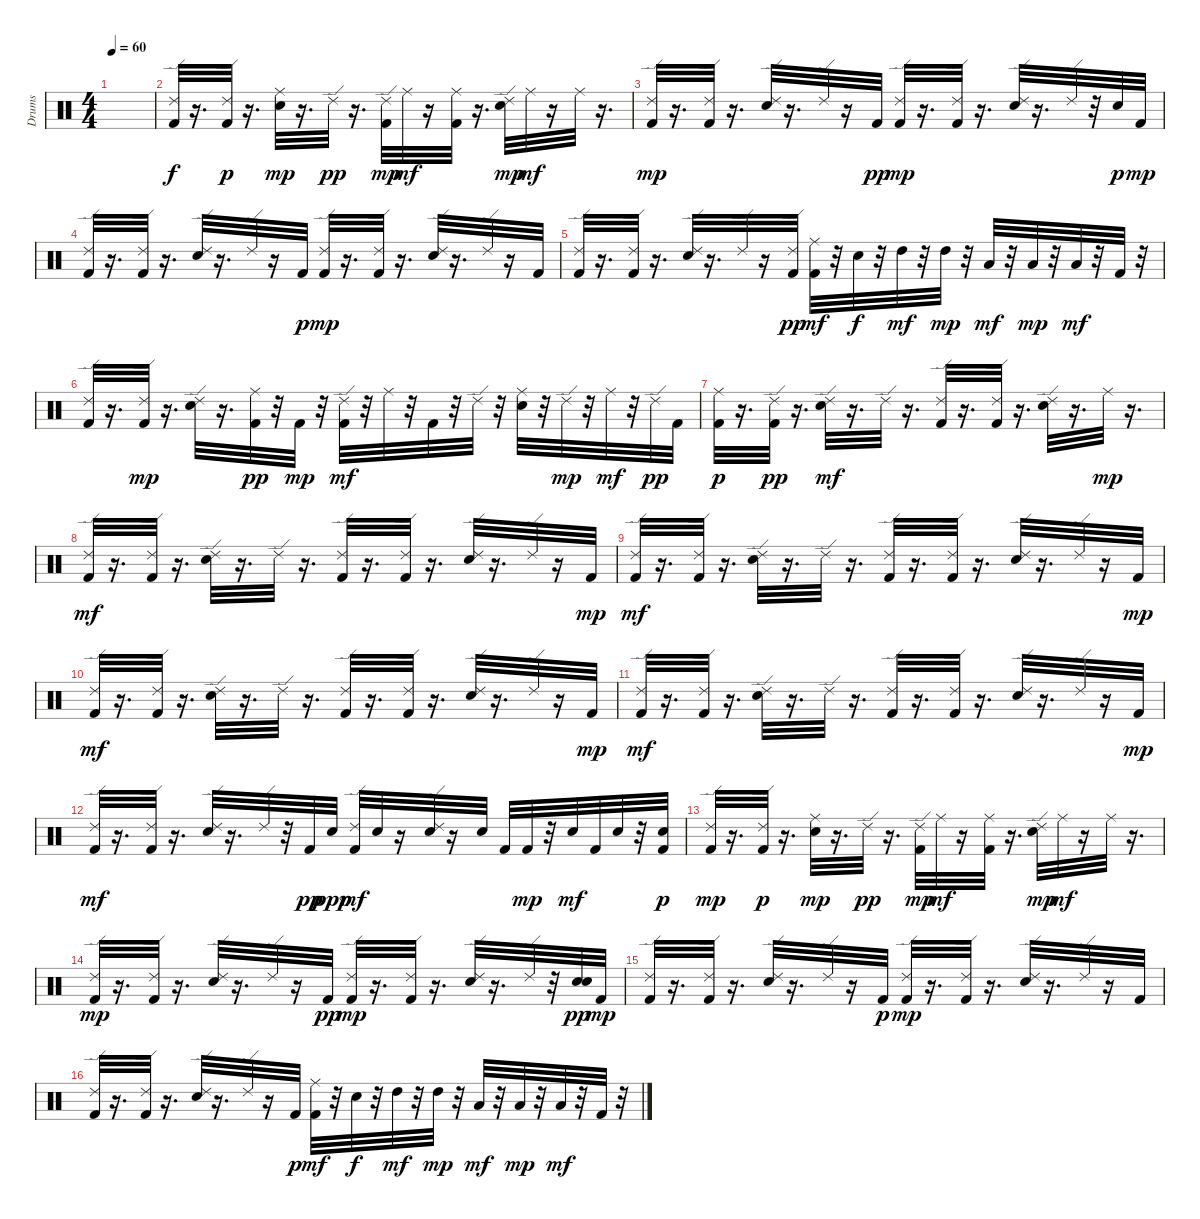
\track ("Drums" "Drums") {instrument percussion}
\staff {score}
\articulation defaults
\ts (4 4)
\tempo 60
\clef neutral
\ks c
|
("Kick (hit) 2" "Ride (edge) 2").32 r.16{d} ("Kick (hit) 2" "Ride (edge) 2").32{dy p} r.16{d} ("Snare (hit) 2" "Ride (middle)").32{dy mp} r.16{d} "Ride (edge) 2".32{dy pp} r.16{d} ("Kick (hit) 2" "Ride (edge) 2").32{dy mp} "Ride (middle)".32{dy mf} r.16 ("Kick (hit) 2" "Ride (middle)").32 r.16{d} ("Snare (hit) 2" "Ride (edge) 2").32{dy mp} "Ride (middle)".32{dy mf} r.16 "Ride (middle)".32 r.16{d} |
("Kick (hit) 2" "Ride (edge) 2").32{dy mp} r.16{d} ("Kick (hit) 2" "Ride (edge) 2").32 r.16{d} ("Snare (hit) 2" "Ride (edge) 2").32 r.16{d} "Ride (edge) 2".32 r.16 "Kick (hit) 2".32{dy pp} ("Kick (hit) 2" "Ride (edge) 2").32{dy mp} r.16{d} ("Kick (hit) 2" "Ride (edge) 2").32 r.16{d} ("Snare (hit) 2" "Ride (edge) 2").32 r.16{d} "Ride (edge) 2".32 r.32 "Snare (hit) 2".32{dy p} "Kick (hit) 2".32{dy mp} |
("Kick (hit) 2" "Ride (edge) 2").32 r.16{d} ("Kick (hit) 2" "Ride (edge) 2").32 r.16{d} ("Snare (hit) 2" "Ride (edge) 2").32 r.16{d} "Ride (edge) 2".32 r.16 "Kick (hit) 2".32{dy p} ("Kick (hit) 2" "Ride (edge) 2").32{dy mp} r.16{d} ("Kick (hit) 2" "Ride (edge) 2").32 r.16{d} ("Snare (hit) 2" "Ride (edge) 2").32 r.16{d} "Ride (edge) 2".32 r.16 "Kick (hit) 2".32 |
("Kick (hit) 2" "Ride (edge) 2").32 r.16{d} ("Kick (hit) 2" "Ride (edge) 2").32 r.16{d} ("Snare (hit) 2" "Ride (edge) 2").32 r.16{d} "Ride (edge) 2".32 r.16 ("Kick (hit) 2" "Ride (edge) 2").32{dy pp} ("Kick (hit) 2" "Ride (middle)").32{dy mf} r.32 "Snare (hit) 2".32{dy f} r.32 "High Tom (hit)".32{dy mf} r.32 "High Tom (hit)".32{dy mp} r.32 "Low Floor Tom (hit)".32{dy mf} r.32 "Low Floor Tom (hit)".32{dy mp} r.32 "Low Tom (hit)".32{dy mf} r.32 "Kick (hit) 2".32 r.32 |
("Kick (hit) 2" "Ride (edge) 2").32 r.16{d} ("Kick (hit) 2" "Ride (edge) 2").32{dy mp} r.16{d} ("Snare (hit) 2" "Ride (edge) 2").32 r.16{d} ("Kick (hit) 2" "Ride (middle)").32{dy pp} r.32 "Kick (hit) 2".32{dy mp} r.32 ("Kick (hit) 2" "Ride (edge) 2").32{dy mf} r.32 "Ride (middle)".32 r.32 "Kick (hit) 2".32 r.32 "Ride (edge) 2".32 r.32 ("Snare (hit) 2" "Ride (middle)").32 r.32 "Ride (edge) 2".32{dy mp} r.32 "Ride (middle)".32{dy mf} r.32 "Ride (edge) 2".32{dy pp} "Kick (hit) 2".32 |
("Kick (hit) 2" "Ride (middle)").32{dy p} r.16{d} ("Kick (hit) 2" "Ride (edge) 2").32{dy pp} r.16{d} ("Snare (hit) 2" "Ride (edge) 2").32{dy mf} r.16{d} "Ride (edge) 2".32 r.16{d} ("Kick (hit) 2" "Ride (edge) 2").32 r.16{d} ("Kick (hit) 2" "Ride (edge) 2").32 r.16{d} ("Snare (hit) 2" "Ride (edge) 2").32 r.16{d} "Ride (middle)".32{dy mp} r.16{d} |
("Kick (hit) 2" "Ride (edge) 2").32{dy mf} r.16{d} ("Kick (hit) 2" "Ride (edge) 2").32 r.16{d} ("Snare (hit) 2" "Ride (edge) 2").32 r.16{d} "Ride (edge) 2".32 r.16{d} ("Kick (hit) 2" "Ride (edge) 2").32 r.16{d} ("Kick (hit) 2" "Ride (edge) 2").32 r.16{d} ("Snare (hit) 2" "Ride (edge) 2").32 r.16{d} "Ride (edge) 2".32 r.16 "Kick (hit) 2".32{dy mp} |
("Kick (hit) 2" "Ride (edge) 2").32{dy mf} r.16{d} ("Kick (hit) 2" "Ride (edge) 2").32 r.16{d} ("Ride (edge) 2" "Snare (hit) 2").32 r.16{d} "Ride (edge) 2".32 r.16{d} ("Kick (hit) 2" "Ride (edge) 2").32 r.16{d} ("Kick (hit) 2" "Ride (edge) 2").32 r.16{d} ("Snare (hit) 2" "Ride (edge) 2").32 r.16{d} "Ride (edge) 2".32 r.16 "Kick (hit) 2".32{dy mp} |
("Kick (hit) 2" "Ride (edge) 2").32{dy mf} r.16{d} ("Kick (hit) 2" "Ride (edge) 2").32 r.16{d} ("Snare (hit) 2" "Ride (edge) 2").32 r.16{d} "Ride (edge) 2".32 r.16{d} ("Kick (hit) 2" "Ride (edge) 2").32 r.16{d} ("Kick (hit) 2" "Ride (edge) 2").32 r.16{d} ("Snare (hit) 2" "Ride (edge) 2").32 r.16{d} "Ride (edge) 2".32 r.16 "Kick (hit) 2".32{dy mp} |
("Kick (hit) 2" "Ride (edge) 2").32{dy mf} r.16{d} ("Kick (hit) 2" "Ride (edge) 2").32 r.16{d} ("Snare (hit) 2" "Ride (edge) 2").32 r.16{d} "Ride (edge) 2".32 r.16{d} ("Kick (hit) 2" "Ride (edge) 2").32 r.16{d} ("Kick (hit) 2" "Ride (edge) 2").32 r.16{d} ("Snare (hit) 2" "Ride (edge) 2").32 r.16{d} "Ride (edge) 2".32 r.16 "Kick (hit) 2".32{dy mp} |
("Kick (hit) 2" "Ride (edge) 2").32{dy mf} r.16{d} ("Kick (hit) 2" "Ride (edge) 2").32 r.16{d} ("Snare (hit) 2" "Ride (edge) 2").32 r.16{d} "Ride (edge) 2".32 r.32 "Kick (hit) 2".32{dy pp} "Snare (hit) 2".32{dy ppp} ("Kick (hit) 2" "Ride (edge) 2").32{dy mf} "Snare (hit) 2".32 r.16 ("Snare (hit) 2" "Ride (edge) 2").32 r.16 "Snare (hit) 2".32 "Kick (hit) 2".32 "Kick (hit) 2".32{dy mp} r.32 "Snare (hit) 2".32{dy mf} "Kick (hit) 2".32 "Snare (hit) 2".32 r.32 ("Kick (hit) 2" "Snare (hit) 2").32{dy p} |
("Kick (hit) 2" "Ride (edge) 2").32{dy mp} r.16{d} ("Kick (hit) 2" "Ride (edge) 2").32{dy p} r.16{d} ("Snare (hit) 2" "Ride (middle)").32{dy mp} r.16{d} "Ride (edge) 2".32{dy pp} r.16{d} ("Kick (hit) 2" "Ride (edge) 2").32{dy mp} "Ride (middle)".32{dy mf} r.16 ("Kick (hit) 2" "Ride (middle)").32 r.16{d} ("Snare (hit) 2" "Ride (edge) 2").32{dy mp} "Ride (middle)".32{dy mf} r.16 "Ride (middle)".32 r.16{d} |
("Kick (hit) 2" "Ride (edge) 2").32{dy mp} r.16{d} ("Kick (hit) 2" "Ride (edge) 2").32 r.16{d} ("Snare (hit) 2" "Ride (edge) 2").32 r.16{d} "Ride (edge) 2".32 r.16 "Kick (hit) 2".32{dy pp} ("Kick (hit) 2" "Ride (edge) 2").32{dy mp} r.16{d} ("Kick (hit) 2" "Ride (edge) 2").32 r.16{d} ("Snare (hit) 2" "Ride (edge) 2").32 r.16{d} "Ride (edge) 2".32 r.32 ("Snare (hit) 2" "Snare (hit) 2").32{dy pp} "Kick (hit) 2".32{dy mp} |
("Kick (hit) 2" "Ride (edge) 2").32 r.16{d} ("Kick (hit) 2" "Ride (edge) 2").32 r.16{d} ("Snare (hit) 2" "Ride (edge) 2").32 r.16{d} "Ride (edge) 2".32 r.16 "Kick (hit) 2".32{dy p} ("Kick (hit) 2" "Ride (edge) 2").32{dy mp} r.16{d} ("Kick (hit) 2" "Ride (edge) 2").32 r.16{d} ("Snare (hit) 2" "Ride (edge) 2").32 r.16{d} "Ride (edge) 2".32 r.16 "Kick (hit) 2".32 |
("Kick (hit) 2" "Ride (edge) 2").32 r.16{d} ("Kick (hit) 2" "Ride (edge) 2").32 r.16{d} ("Snare (hit) 2" "Ride (edge) 2").32 r.16{d} "Ride (edge) 2".32 r.16 "Kick (hit) 2".32{dy p} ("Kick (hit) 2" "Ride (middle)").32{dy mf} r.32 "Snare (hit) 2".32{dy f} r.32 "High Tom (hit)".32{dy mf} r.32 "High Tom (hit)".32{dy mp} r.32 "Low Floor Tom (hit)".32{dy mf} r.32 "Low Floor Tom (hit)".32{dy mp} r.32 "Low Tom (hit)".32{dy mf} r.32 "Kick (hit) 2".32 r.32
